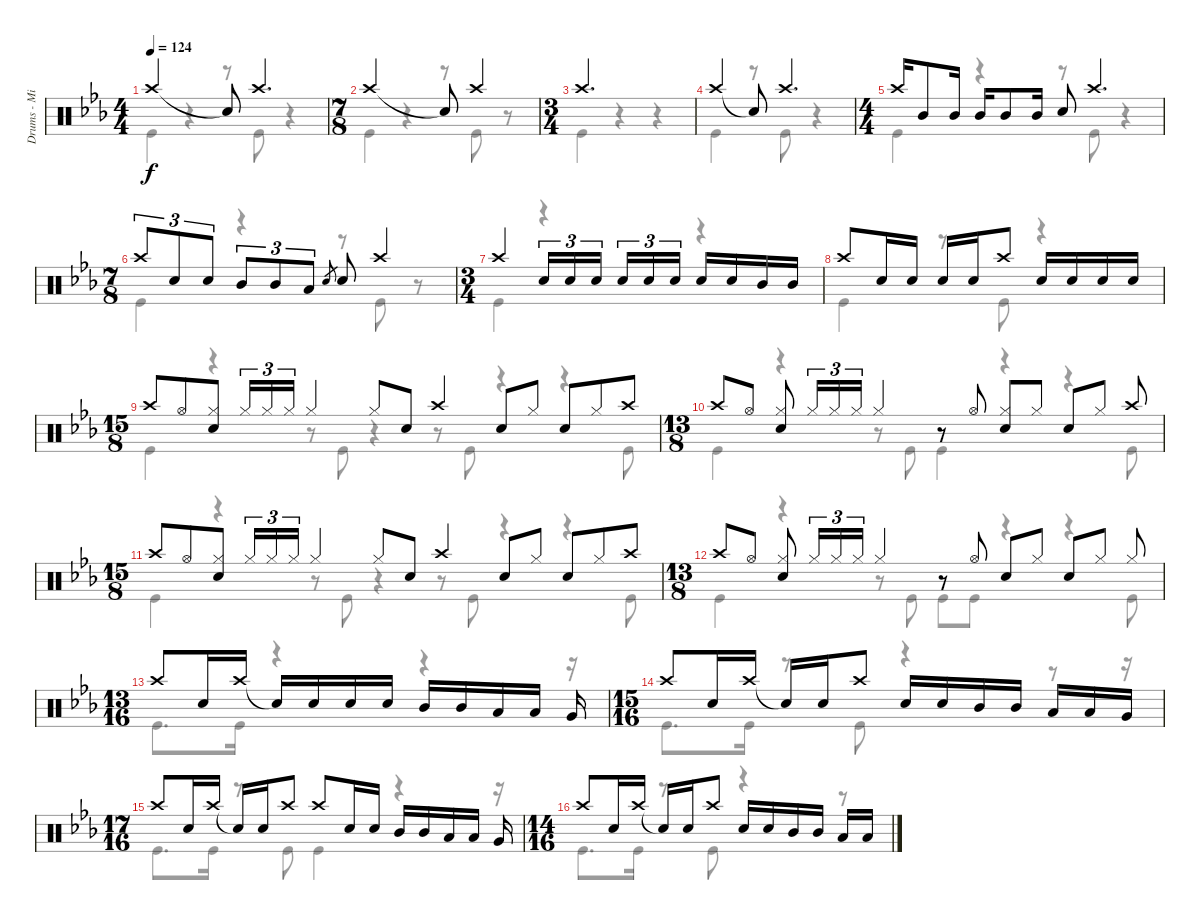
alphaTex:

\track ("Drums - Mike Portnoy" "Drums - Mi") {instrument percussion}
\staff {score}
\articulation defaults
\voice
\ts (4 4)
\tempo 124
\clef neutral
\ks eb "Crash high (hit)".2{dy f volume 13} "Snare (hit)"{t}.8 "Crash high (hit)".4{d}
|
\ts (7 8)
"Crash high (hit)".2 "Snare (hit)"{t}.8 "Crash high (hit)".4 |
\ts (3 4)
"Crash high (hit)".2{d} |
"Crash high (hit)".4 "Snare (hit)"{t}.8 "Crash high (hit)".4{d} |
\ts (4 4)
"Crash high (hit)".16 "Mid Tom (hit)".8 "Mid Tom (hit)".16 "Mid Tom (hit)".16 "Mid Tom (hit)".8 "Mid Tom (hit)".16 "Snare (hit) 2".8 "Crash high (hit)".4{d} |
\ts (7 8)
"Crash high (hit)".8{tu (3 2)} "Snare (hit) 2".8{tu (3 2)} "Snare (hit) 2".8{tu (3 2)} "Mid Tom (hit)".8{tu (3 2)} "Mid Tom (hit)".8{tu (3 2)} "Low Tom (hit)".8{tu (3 2)} "Snare (hit) 2".8{gr} "Snare (hit) 2".8 "Crash high (hit)".4 |
\ts (3 4)
"Crash high (hit)".4 "Snare (hit) 2".16{tu (3 2)} "Snare (hit) 2".16{tu (3 2)} "Snare (hit) 2".16{tu (3 2) beam splitsecondary} "Snare (hit) 2".16{tu (3 2)} "Snare (hit) 2".16{tu (3 2)} "Snare (hit) 2".16{tu (3 2)} "Snare (hit) 2".16 "Snare (hit) 2".16 "Mid Tom (hit)".16 "Mid Tom (hit)".16 |
"Crash high (hit)".8 "Snare (hit) 2".16 "Snare (hit) 2".16 "Snare (hit) 2".16 "Snare (hit) 2".16 "Crash high (hit)".8 "Snare (hit) 2".16 "Snare (hit) 2".16 "Snare (hit) 2".16 "Snare (hit) 2".16 |
\ts (15 8)
"Crash high (hit)".8 "Hi-Hat (open)".8 ("Hi-Hat (closed)" "Snare (hit) 2").8 "Hi-Hat (closed)".16{tu (3 2)} "Hi-Hat (closed)".16{tu (3 2)} "Hi-Hat (closed)".16{tu (3 2)} "Hi-Hat (closed)".4 "Hi-Hat (closed)".8 "Snare (hit) 2".8 "Crash high (hit)".4 "Snare (hit) 2".8 "Hi-Hat (closed)".8 "Snare (hit) 2".8 "Hi-Hat (closed)".8 "Crash high (hit)".8 |
\ts (13 8)
"Crash high (hit)".8 "Hi-Hat (open)".8 ("Hi-Hat (closed)" "Snare (hit) 2").8 "Hi-Hat (closed)".16{tu (3 2)} "Hi-Hat (closed)".16{tu (3 2)} "Hi-Hat (closed)".16{tu (3 2)} "Hi-Hat (closed)".4 r.8 "Hi-Hat (open)".8 ("Hi-Hat (closed)" "Snare (hit) 2").8 "Hi-Hat (closed)".8 "Snare (hit) 2".8 "Hi-Hat (closed)".8 "Crash high (hit)".8 |
\ts (15 8)
"Crash high (hit)".8 "Hi-Hat (open)".8 ("Hi-Hat (closed)" "Snare (hit) 2").8 "Hi-Hat (closed)".16{tu (3 2)} "Hi-Hat (closed)".16{tu (3 2)} "Hi-Hat (closed)".16{tu (3 2)} "Hi-Hat (closed)".4 "Hi-Hat (closed)".8 "Snare (hit) 2".8 "Crash high (hit)".4 "Snare (hit) 2".8 "Hi-Hat (closed)".8 "Snare (hit) 2".8 "Hi-Hat (closed)".8 "Crash high (hit)".8 |
\ts (13 8)
"Crash high (hit)".8 "Hi-Hat (open)".8 ("Hi-Hat (closed)" "Snare (hit) 2").8 "Hi-Hat (closed)".16{tu (3 2)} "Hi-Hat (closed)".16{tu (3 2)} "Hi-Hat (closed)".16{tu (3 2)} "Hi-Hat (closed)".4 r.8 "Hi-Hat (open)".8 "Snare (hit) 2".8 "Hi-Hat (closed)".8 "Snare (hit) 2".8 "Hi-Hat (closed)".8 "Hi-Hat (closed)".8 |
\ts (13 16)
"Crash high (hit)".8 "Snare (hit) 2".16 "Crash high (hit)".16 "Snare (hit)"{t}.16 "Snare (hit) 2".16 "Snare (hit) 2".16 "Snare (hit) 2".16 "Mid Tom (hit)".16 "Mid Tom (hit)".16 "Low Tom (hit)".16 "Low Tom (hit)".16 "Very Low Tom (hit)".16 |
\ts (15 16)
"Crash high (hit)".8 "Snare (hit) 2".16 "Crash high (hit)".16 "Snare (hit)"{t}.16 "Snare (hit) 2".16 "Crash high (hit)".8 "Snare (hit) 2".16 "Snare (hit) 2".16 "Mid Tom (hit)".16 "Mid Tom (hit)".16 "Low Tom (hit)".16 "Low Tom (hit)".16 "Very Low Tom (hit)".16 |
\ts (17 16)
"Crash high (hit)".8 "Snare (hit) 2".16 "Crash high (hit)".16 "Snare (hit)"{t}.16 "Snare (hit) 2".16 "Crash high (hit)".8 "Crash high (hit)".8 "Snare (hit) 2".16 "Snare (hit) 2".16 "Mid Tom (hit)".16 "Mid Tom (hit)".16 "Low Tom (hit)".16 "Low Tom (hit)".16 "Very Low Tom (hit)".16 |
\ts (14 16)
"Crash high (hit)".8 "Snare (hit) 2".16 "Crash high (hit)".16 "Snare (hit)"{t}.16 "Snare (hit) 2".16 "Crash high (hit)".8 "Snare (hit) 2".16 "Snare (hit) 2".16 "Mid Tom (hit)".16 "Mid Tom (hit)".16 "Low Tom (hit)".16 "Low Tom (hit)".16
\voice
\clef neutral
\ottava regular
\simile none
\ks eb "Kick (hit)".4{dy f}
r.4 r.8 "Kick (hit)".8 r.4 |
"Kick (hit)".4 r.4 r.8 "Kick (hit)".8 r.8 |
"Kick (hit)".4 r.4 r.4 |
"Kick (hit)".4 r.8 "Kick (hit)".8 r.4 |
"Kick (hit)".4 r.4 r.8 "Kick (hit)".8 r.4 |
"Kick (hit)".4 r.4 r.8 "Kick (hit)".8 r.8 |
"Kick (hit)".4 r.4 r.4 |
"Kick (hit)".4 r.8 "Kick (hit)".8 r.4 |
"Kick (hit)".4 r.4 r.8 "Kick (hit)".8 r.4 r.8 "Kick (hit)".8 r.4 r.4 "Kick (hit)".8 |
"Kick (hit)".4 r.4 r.8 "Kick (hit)".8 "Kick (hit)".4 r.4 r.4 "Kick (hit)".8 |
"Kick (hit)".4 r.4 r.8 "Kick (hit)".8 r.4 r.8 "Kick (hit)".8 r.4 r.4 "Kick (hit)".8 |
"Kick (hit)".4 r.4 r.8 "Kick (hit)".8 "Kick (hit)".8 "Kick (hit)".8 r.4 r.4 "Kick (hit)".8 |
"Kick (hit)".8{d} "Kick (hit)".16 r.4 r.4 r.16 |
"Kick (hit)".8{d} "Kick (hit)".16 r.8 "Kick (hit)".8 r.4 r.8 r.16 |
"Kick (hit)".8{d} "Kick (hit)".16 r.8 "Kick (hit)".8 "Kick (hit)".4 r.4 r.16 |
"Kick (hit)".8{d} "Kick (hit)".16 r.8 "Kick (hit)".8 r.4 r.8
